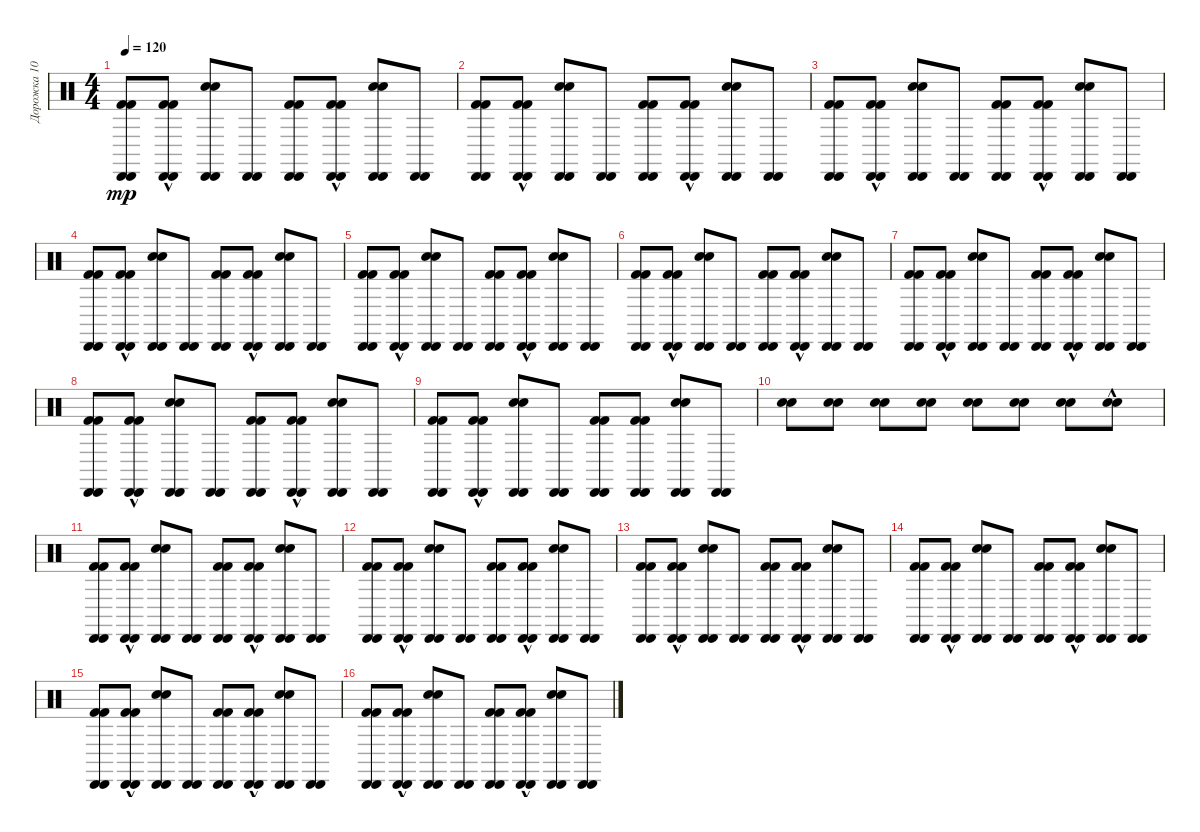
\track ("Дорожка 10" "Дорожка 10") {instrument percussion}
\staff {score}
\articulation defaults
\ts (4 4)
\tempo 120
\clef neutral
\ks c
("Kick (hit) 2" "Cabasa (hit)" "Kick (hit) 2" "Cabasa (hit)").8{dy mp} ("Kick (hit) 2"{hac} "Cabasa (hit)" "Kick (hit) 2"{hac} "Cabasa (hit)").8 ("Snare (hit) 2" "Cabasa (hit)" "Snare (hit) 2" "Cabasa (hit)").8 ("Cabasa (hit)" "Cabasa (hit)").8 ("Kick (hit) 2" "Cabasa (hit)" "Kick (hit) 2" "Cabasa (hit)").8 ("Kick (hit) 2"{hac} "Cabasa (hit)" "Kick (hit) 2"{hac} "Cabasa (hit)").8 ("Snare (hit) 2" "Cabasa (hit)" "Snare (hit) 2" "Cabasa (hit)").8 ("Cabasa (hit)" "Cabasa (hit)").8 |
("Kick (hit) 2" "Cabasa (hit)" "Kick (hit) 2" "Cabasa (hit)").8 ("Kick (hit) 2"{hac} "Cabasa (hit)" "Kick (hit) 2"{hac} "Cabasa (hit)").8 ("Snare (hit) 2" "Cabasa (hit)" "Snare (hit) 2" "Cabasa (hit)").8 ("Cabasa (hit)" "Cabasa (hit)").8 ("Kick (hit) 2" "Cabasa (hit)" "Kick (hit) 2" "Cabasa (hit)").8 ("Kick (hit) 2"{hac} "Cabasa (hit)" "Kick (hit) 2"{hac} "Cabasa (hit)").8 ("Snare (hit) 2" "Cabasa (hit)" "Snare (hit) 2" "Cabasa (hit)").8 ("Cabasa (hit)" "Cabasa (hit)").8 |
("Kick (hit) 2" "Cabasa (hit)" "Kick (hit) 2" "Cabasa (hit)").8 ("Kick (hit) 2"{hac} "Cabasa (hit)" "Kick (hit) 2"{hac} "Cabasa (hit)").8 ("Snare (hit) 2" "Cabasa (hit)" "Snare (hit) 2" "Cabasa (hit)").8 ("Cabasa (hit)" "Cabasa (hit)").8 ("Kick (hit) 2" "Cabasa (hit)" "Kick (hit) 2" "Cabasa (hit)").8 ("Kick (hit) 2"{hac} "Cabasa (hit)" "Kick (hit) 2"{hac} "Cabasa (hit)").8 ("Snare (hit) 2" "Cabasa (hit)" "Snare (hit) 2" "Cabasa (hit)").8 ("Cabasa (hit)" "Cabasa (hit)").8 |
("Kick (hit) 2" "Cabasa (hit)" "Kick (hit) 2" "Cabasa (hit)").8 ("Kick (hit) 2"{hac} "Cabasa (hit)" "Kick (hit) 2"{hac} "Cabasa (hit)").8 ("Snare (hit) 2" "Cabasa (hit)" "Snare (hit) 2" "Cabasa (hit)").8 ("Cabasa (hit)" "Cabasa (hit)").8 ("Kick (hit) 2" "Cabasa (hit)" "Kick (hit) 2" "Cabasa (hit)").8 ("Kick (hit) 2"{hac} "Cabasa (hit)" "Kick (hit) 2"{hac} "Cabasa (hit)").8 ("Snare (hit) 2" "Cabasa (hit)" "Snare (hit) 2" "Cabasa (hit)").8 ("Cabasa (hit)" "Cabasa (hit)").8 |
("Kick (hit) 2" "Cabasa (hit)" "Kick (hit) 2" "Cabasa (hit)").8 ("Kick (hit) 2"{hac} "Cabasa (hit)" "Kick (hit) 2"{hac} "Cabasa (hit)").8 ("Snare (hit) 2" "Cabasa (hit)" "Snare (hit) 2" "Cabasa (hit)").8 ("Cabasa (hit)" "Cabasa (hit)").8 ("Kick (hit) 2" "Cabasa (hit)" "Kick (hit) 2" "Cabasa (hit)").8 ("Kick (hit) 2"{hac} "Cabasa (hit)" "Kick (hit) 2"{hac} "Cabasa (hit)").8 ("Snare (hit) 2" "Cabasa (hit)" "Snare (hit) 2" "Cabasa (hit)").8 ("Cabasa (hit)" "Cabasa (hit)").8 |
("Kick (hit) 2" "Cabasa (hit)" "Kick (hit) 2" "Cabasa (hit)").8 ("Kick (hit) 2"{hac} "Cabasa (hit)" "Kick (hit) 2"{hac} "Cabasa (hit)").8 ("Snare (hit) 2" "Cabasa (hit)" "Snare (hit) 2" "Cabasa (hit)").8 ("Cabasa (hit)" "Cabasa (hit)").8 ("Kick (hit) 2" "Cabasa (hit)" "Kick (hit) 2" "Cabasa (hit)").8 ("Kick (hit) 2"{hac} "Cabasa (hit)" "Kick (hit) 2"{hac} "Cabasa (hit)").8 ("Snare (hit) 2" "Cabasa (hit)" "Snare (hit) 2" "Cabasa (hit)").8 ("Cabasa (hit)" "Cabasa (hit)").8 |
("Kick (hit) 2" "Cabasa (hit)" "Kick (hit) 2" "Cabasa (hit)").8 ("Kick (hit) 2"{hac} "Cabasa (hit)" "Kick (hit) 2"{hac} "Cabasa (hit)").8 ("Snare (hit) 2" "Cabasa (hit)" "Snare (hit) 2" "Cabasa (hit)").8 ("Cabasa (hit)" "Cabasa (hit)").8 ("Kick (hit) 2" "Cabasa (hit)" "Kick (hit) 2" "Cabasa (hit)").8 ("Kick (hit) 2"{hac} "Cabasa (hit)" "Kick (hit) 2"{hac} "Cabasa (hit)").8 ("Snare (hit) 2" "Cabasa (hit)" "Snare (hit) 2" "Cabasa (hit)").8 ("Cabasa (hit)" "Cabasa (hit)").8 |
("Kick (hit) 2" "Cabasa (hit)" "Kick (hit) 2" "Cabasa (hit)").8 ("Kick (hit) 2"{hac} "Cabasa (hit)" "Kick (hit) 2"{hac} "Cabasa (hit)").8 ("Snare (hit) 2" "Cabasa (hit)" "Snare (hit) 2" "Cabasa (hit)").8 ("Cabasa (hit)" "Cabasa (hit)").8 ("Kick (hit) 2" "Cabasa (hit)" "Kick (hit) 2" "Cabasa (hit)").8 ("Kick (hit) 2"{hac} "Cabasa (hit)" "Kick (hit) 2"{hac} "Cabasa (hit)").8 ("Snare (hit) 2" "Cabasa (hit)" "Snare (hit) 2" "Cabasa (hit)").8 ("Cabasa (hit)" "Cabasa (hit)").8 |
("Kick (hit) 2" "Cabasa (hit)" "Kick (hit) 2" "Cabasa (hit)").8 ("Kick (hit) 2"{hac} "Cabasa (hit)" "Kick (hit) 2"{hac} "Cabasa (hit)").8 ("Snare (hit) 2" "Cabasa (hit)" "Snare (hit) 2" "Cabasa (hit)").8 ("Cabasa (hit)" "Cabasa (hit)").8 ("Kick (hit) 2" "Cabasa (hit)" "Kick (hit) 2" "Cabasa (hit)").8 ("Kick (hit) 2" "Cabasa (hit)" "Kick (hit) 2" "Cabasa (hit)").8 ("Snare (hit) 2" "Cabasa (hit)" "Snare (hit) 2" "Cabasa (hit)").8 ("Cabasa (hit)" "Cabasa (hit)").8 |
("Snare (hit) 2" "Snare (hit) 2").8 ("Snare (hit) 2" "Snare (hit) 2").8 ("Snare (hit) 2" "Snare (hit) 2").8 ("Snare (hit) 2" "Snare (hit) 2").8 ("Snare (hit) 2" "Snare (hit) 2").8 ("Snare (hit) 2" "Snare (hit) 2").8 ("Snare (hit) 2" "Snare (hit) 2").8 ("Snare (hit) 2"{hac} "Snare (hit) 2"{hac}).8 |
("Kick (hit) 2" "Cabasa (hit)" "Kick (hit) 2" "Cabasa (hit)").8 ("Kick (hit) 2"{hac} "Cabasa (hit)" "Kick (hit) 2"{hac} "Cabasa (hit)").8 ("Snare (hit) 2" "Cabasa (hit)" "Snare (hit) 2" "Cabasa (hit)").8 ("Cabasa (hit)" "Cabasa (hit)").8 ("Kick (hit) 2" "Cabasa (hit)" "Kick (hit) 2" "Cabasa (hit)").8 ("Kick (hit) 2"{hac} "Cabasa (hit)" "Kick (hit) 2"{hac} "Cabasa (hit)").8 ("Snare (hit) 2" "Cabasa (hit)" "Snare (hit) 2" "Cabasa (hit)").8 ("Cabasa (hit)" "Cabasa (hit)").8 |
("Kick (hit) 2" "Cabasa (hit)" "Kick (hit) 2" "Cabasa (hit)").8 ("Kick (hit) 2"{hac} "Cabasa (hit)" "Kick (hit) 2"{hac} "Cabasa (hit)").8 ("Snare (hit) 2" "Cabasa (hit)" "Snare (hit) 2" "Cabasa (hit)").8 ("Cabasa (hit)" "Cabasa (hit)").8 ("Kick (hit) 2" "Cabasa (hit)" "Kick (hit) 2" "Cabasa (hit)").8 ("Kick (hit) 2"{hac} "Cabasa (hit)" "Kick (hit) 2"{hac} "Cabasa (hit)").8 ("Snare (hit) 2" "Cabasa (hit)" "Snare (hit) 2" "Cabasa (hit)").8 ("Cabasa (hit)" "Cabasa (hit)").8 |
("Kick (hit) 2" "Cabasa (hit)" "Kick (hit) 2" "Cabasa (hit)").8 ("Kick (hit) 2"{hac} "Cabasa (hit)" "Kick (hit) 2"{hac} "Cabasa (hit)").8 ("Snare (hit) 2" "Cabasa (hit)" "Snare (hit) 2" "Cabasa (hit)").8 ("Cabasa (hit)" "Cabasa (hit)").8 ("Kick (hit) 2" "Cabasa (hit)" "Kick (hit) 2" "Cabasa (hit)").8 ("Kick (hit) 2"{hac} "Cabasa (hit)" "Kick (hit) 2"{hac} "Cabasa (hit)").8 ("Snare (hit) 2" "Cabasa (hit)" "Snare (hit) 2" "Cabasa (hit)").8 ("Cabasa (hit)" "Cabasa (hit)").8 |
("Kick (hit) 2" "Cabasa (hit)" "Kick (hit) 2" "Cabasa (hit)").8 ("Kick (hit) 2"{hac} "Cabasa (hit)" "Kick (hit) 2"{hac} "Cabasa (hit)").8 ("Snare (hit) 2" "Cabasa (hit)" "Snare (hit) 2" "Cabasa (hit)").8 ("Cabasa (hit)" "Cabasa (hit)").8 ("Kick (hit) 2" "Cabasa (hit)" "Kick (hit) 2" "Cabasa (hit)").8 ("Kick (hit) 2"{hac} "Cabasa (hit)" "Kick (hit) 2"{hac} "Cabasa (hit)").8 ("Snare (hit) 2" "Cabasa (hit)" "Snare (hit) 2" "Cabasa (hit)").8 ("Cabasa (hit)" "Cabasa (hit)").8 |
("Kick (hit) 2" "Cabasa (hit)" "Kick (hit) 2" "Cabasa (hit)").8 ("Kick (hit) 2"{hac} "Cabasa (hit)" "Kick (hit) 2"{hac} "Cabasa (hit)").8 ("Snare (hit) 2" "Cabasa (hit)" "Snare (hit) 2" "Cabasa (hit)").8 ("Cabasa (hit)" "Cabasa (hit)").8 ("Kick (hit) 2" "Cabasa (hit)" "Kick (hit) 2" "Cabasa (hit)").8 ("Kick (hit) 2"{hac} "Cabasa (hit)" "Kick (hit) 2"{hac} "Cabasa (hit)").8 ("Snare (hit) 2" "Cabasa (hit)" "Snare (hit) 2" "Cabasa (hit)").8 ("Cabasa (hit)" "Cabasa (hit)").8 |
("Kick (hit) 2" "Cabasa (hit)" "Kick (hit) 2" "Cabasa (hit)").8 ("Kick (hit) 2"{hac} "Cabasa (hit)" "Kick (hit) 2"{hac} "Cabasa (hit)").8 ("Snare (hit) 2" "Cabasa (hit)" "Snare (hit) 2" "Cabasa (hit)").8 ("Cabasa (hit)" "Cabasa (hit)").8 ("Kick (hit) 2" "Cabasa (hit)" "Kick (hit) 2" "Cabasa (hit)").8 ("Kick (hit) 2"{hac} "Cabasa (hit)" "Kick (hit) 2"{hac} "Cabasa (hit)").8 ("Snare (hit) 2" "Cabasa (hit)" "Snare (hit) 2" "Cabasa (hit)").8 ("Cabasa (hit)" "Cabasa (hit)").8
